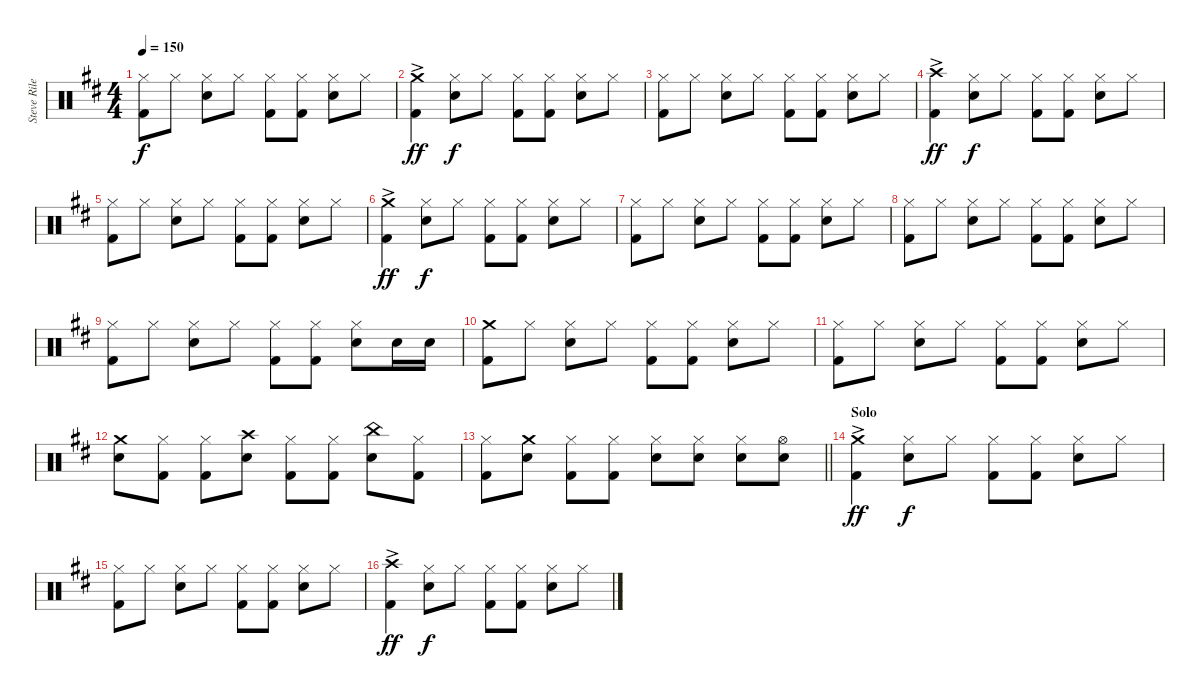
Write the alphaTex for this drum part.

\track ("Steve Riley" "Steve Rile") {instrument percussion}
\staff {score}
\articulation defaults
\ts (4 4)
\tempo 150
\clef neutral
\ks d
("Hi-Hat (closed)" "Kick (hit) 2").8{dy f} "Hi-Hat (closed)".8 ("Hi-Hat (closed)" "Electric Snare (hit)").8 "Hi-Hat (closed)".8 ("Hi-Hat (closed)" "Kick (hit) 2").8 ("Hi-Hat (closed)" "Kick (hit) 2").8 ("Hi-Hat (closed)" "Electric Snare (hit)").8 "Hi-Hat (closed)".8 |
("Crash medium (hit)"{ac} "Kick (hit) 2").4{dy ff} ("Hi-Hat (closed)" "Electric Snare (hit)").8{dy f} "Hi-Hat (closed)".8 ("Hi-Hat (closed)" "Kick (hit) 2").8 ("Hi-Hat (closed)" "Kick (hit) 2").8 ("Hi-Hat (closed)" "Electric Snare (hit)").8 "Hi-Hat (closed)".8 |
("Hi-Hat (closed)" "Kick (hit) 2").8 "Hi-Hat (closed)".8 ("Hi-Hat (closed)" "Electric Snare (hit)").8 "Hi-Hat (closed)".8 ("Hi-Hat (closed)" "Kick (hit) 2").8 ("Hi-Hat (closed)" "Kick (hit) 2").8 ("Hi-Hat (closed)" "Electric Snare (hit)").8 "Hi-Hat (closed)".8 |
("Crash high (hit)"{ac} "Kick (hit) 2").4{dy ff} ("Hi-Hat (closed)" "Electric Snare (hit)").8{dy f} "Hi-Hat (closed)".8 ("Hi-Hat (closed)" "Kick (hit) 2").8 ("Hi-Hat (closed)" "Kick (hit) 2").8 ("Hi-Hat (closed)" "Electric Snare (hit)").8 "Hi-Hat (closed)".8 |
("Hi-Hat (closed)" "Kick (hit) 2").8 "Hi-Hat (closed)".8 ("Hi-Hat (closed)" "Electric Snare (hit)").8 "Hi-Hat (closed)".8 ("Hi-Hat (closed)" "Kick (hit) 2").8 ("Hi-Hat (closed)" "Kick (hit) 2").8 ("Hi-Hat (closed)" "Electric Snare (hit)").8 "Hi-Hat (closed)".8 |
("Crash medium (hit)"{ac} "Kick (hit) 2").4{dy ff} ("Hi-Hat (closed)" "Electric Snare (hit)").8{dy f} "Hi-Hat (closed)".8 ("Hi-Hat (closed)" "Kick (hit) 2").8 ("Hi-Hat (closed)" "Kick (hit) 2").8 ("Hi-Hat (closed)" "Electric Snare (hit)").8 "Hi-Hat (closed)".8 |
("Hi-Hat (closed)" "Kick (hit) 2").8 "Hi-Hat (closed)".8 ("Hi-Hat (closed)" "Electric Snare (hit)").8 "Hi-Hat (closed)".8 ("Hi-Hat (closed)" "Kick (hit) 2").8 ("Hi-Hat (closed)" "Kick (hit) 2").8 ("Hi-Hat (closed)" "Electric Snare (hit)").8 "Hi-Hat (closed)".8 |
("Hi-Hat (closed)" "Kick (hit) 2").8 "Hi-Hat (closed)".8 ("Hi-Hat (closed)" "Electric Snare (hit)").8 "Hi-Hat (closed)".8 ("Hi-Hat (closed)" "Kick (hit) 2").8 ("Hi-Hat (closed)" "Kick (hit) 2").8 ("Hi-Hat (closed)" "Electric Snare (hit)").8 "Hi-Hat (closed)".8 |
("Hi-Hat (closed)" "Kick (hit) 2").8 "Hi-Hat (closed)".8 ("Hi-Hat (closed)" "Electric Snare (hit)").8 "Hi-Hat (closed)".8 ("Hi-Hat (closed)" "Kick (hit) 2").8 ("Hi-Hat (closed)" "Kick (hit) 2").8 ("Hi-Hat (closed)" "Electric Snare (hit)").8 "Electric Snare (hit)".16 "Electric Snare (hit)".16 |
("Crash medium (hit)" "Kick (hit) 2").8 "Hi-Hat (closed)".8 ("Hi-Hat (closed)" "Electric Snare (hit)").8 "Hi-Hat (closed)".8 ("Hi-Hat (closed)" "Kick (hit) 2").8 ("Hi-Hat (closed)" "Kick (hit) 2").8 ("Hi-Hat (closed)" "Electric Snare (hit)").8 "Hi-Hat (closed)".8 |
("Hi-Hat (closed)" "Kick (hit) 2").8 "Hi-Hat (closed)".8 ("Hi-Hat (closed)" "Electric Snare (hit)").8 "Hi-Hat (closed)".8 ("Hi-Hat (closed)" "Kick (hit) 2").8 ("Hi-Hat (closed)" "Kick (hit) 2").8 ("Hi-Hat (closed)" "Electric Snare (hit)").8 "Hi-Hat (closed)".8 |
("Crash medium (hit)" "Electric Snare (hit)").8 ("Hi-Hat (closed)" "Kick (hit) 2").8 ("Hi-Hat (closed)" "Kick (hit) 2").8 ("Crash high (hit)" "Electric Snare (hit)").8 ("Hi-Hat (closed)" "Kick (hit) 2").8 ("Hi-Hat (closed)" "Kick (hit) 2").8 ("China (hit)" "Electric Snare (hit)").8 ("Hi-Hat (closed)" "Kick (hit) 2").8 |
\barLineRight lightlight
("Hi-Hat (closed)" "Kick (hit) 2").8 ("Crash medium (hit)" "Electric Snare (hit)").8 ("Hi-Hat (closed)" "Kick (hit) 2").8 ("Hi-Hat (closed)" "Kick (hit) 2").8 ("Hi-Hat (closed)" "Electric Snare (hit)").8 ("Hi-Hat (closed)" "Electric Snare (hit)").8 ("Hi-Hat (closed)" "Electric Snare (hit)").8 ("Hi-Hat (open)" "Electric Snare (hit)").8 |
\section ("" "Solo")
("Crash medium (hit)"{ac} "Kick (hit) 2").4{dy ff} ("Hi-Hat (closed)" "Electric Snare (hit)").8{dy f} "Hi-Hat (closed)".8 ("Hi-Hat (closed)" "Kick (hit) 2").8 ("Hi-Hat (closed)" "Kick (hit) 2").8 ("Hi-Hat (closed)" "Electric Snare (hit)").8 "Hi-Hat (closed)".8 |
("Hi-Hat (closed)" "Kick (hit) 2").8 "Hi-Hat (closed)".8 ("Hi-Hat (closed)" "Electric Snare (hit)").8 "Hi-Hat (closed)".8 ("Hi-Hat (closed)" "Kick (hit) 2").8 ("Hi-Hat (closed)" "Kick (hit) 2").8 ("Hi-Hat (closed)" "Electric Snare (hit)").8 "Hi-Hat (closed)".8 |
("Crash high (hit)"{ac} "Kick (hit) 2").4{dy ff} ("Hi-Hat (closed)" "Electric Snare (hit)").8{dy f} "Hi-Hat (closed)".8 ("Hi-Hat (closed)" "Kick (hit) 2").8 ("Hi-Hat (closed)" "Kick (hit) 2").8 ("Hi-Hat (closed)" "Electric Snare (hit)").8 "Hi-Hat (closed)".8
